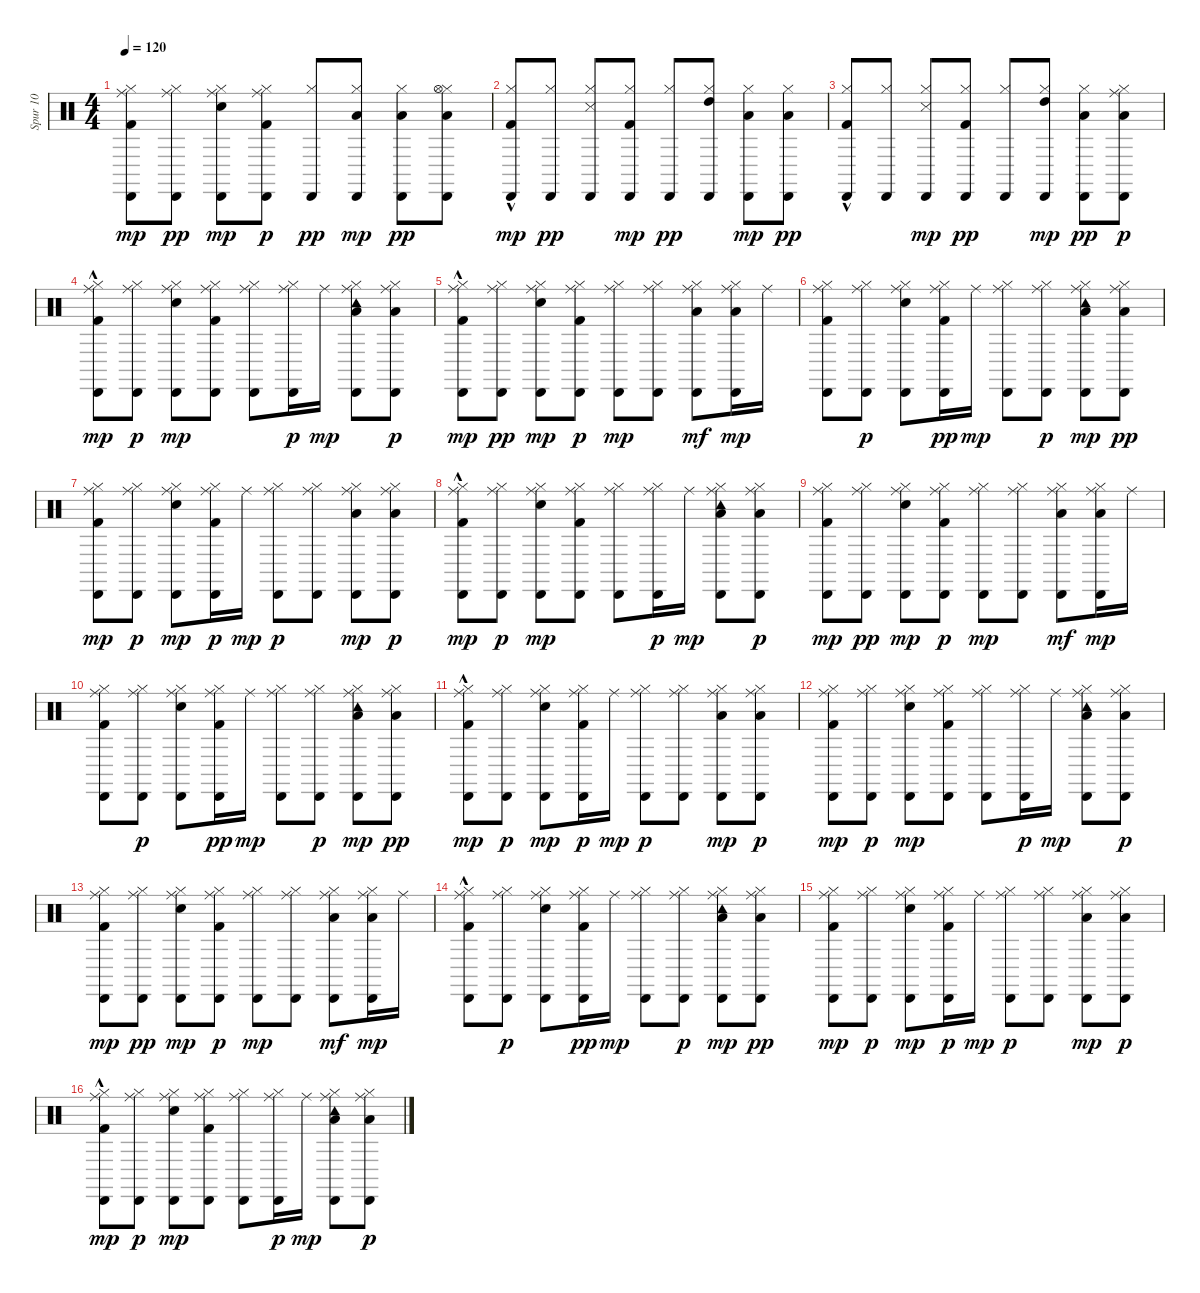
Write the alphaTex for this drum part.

\track ("Spur 10" "Spur 10") {instrument percussion}
\staff {score}
\articulation defaults
\ts (4 4)
\tempo 120
\clef neutral
\ks c
("Kick (hit) 2" "Hi-Hat (closed)" "Cabasa (hit)" "Ride (middle)").8{dy mp} ("Hi-Hat (closed)" "Cabasa (hit)" "Ride (middle)").8{dy pp} ("Snare (hit) 2" "Hi-Hat (closed)" "Cabasa (hit)" "Ride (middle)").8{dy mp} ("Kick (hit) 2" "Hi-Hat (closed)" "Cabasa (hit)" "Ride (middle)").8{dy p} ("Hi-Hat (closed)" "Cabasa (hit)").8{dy pp} ("Low Tom (hit)" "Hi-Hat (closed)" "Cabasa (hit)").8{dy mp} ("Low Floor Tom (hit)" "Hi-Hat (closed)" "Cabasa (hit)").8{dy pp} ("Low Floor Tom (hit)" "Hi-Hat (closed)" "Hi-Hat (open)" "Cabasa (hit)").8 |
("Kick (hit) 2"{hac} "Hi-Hat (closed)" "Cabasa (hit)").8{dy mp} ("Hi-Hat (closed)" "Cabasa (hit)").8{dy pp} ("Snare (side stick) 3" "Hi-Hat (closed)" "Cabasa (hit)").8 ("Kick (hit) 2" "Hi-Hat (closed)" "Cabasa (hit)").8{dy mp} ("Hi-Hat (closed)" "Cabasa (hit)").8{dy pp} ("High Tom (hit)" "Hi-Hat (closed)" "Cabasa (hit)").8 ("Low Tom (hit)" "Hi-Hat (closed)" "Cabasa (hit)").8{dy mp} ("Low Tom (hit)" "Hi-Hat (closed)" "Cabasa (hit)").8{dy pp} |
("Kick (hit) 2"{hac} "Hi-Hat (closed)" "Cabasa (hit)").8 ("Hi-Hat (closed)" "Cabasa (hit)").8 ("Snare (side stick) 3" "Hi-Hat (closed)" "Cabasa (hit)").8{dy mp} ("Kick (hit) 2" "Hi-Hat (closed)" "Cabasa (hit)").8{dy pp} ("Hi-Hat (closed)" "Cabasa (hit)").8 ("High Tom (hit)" "Hi-Hat (closed)" "Cabasa (hit)").8{dy mp} ("Low Floor Tom (hit)" "Hi-Hat (closed)" "Cabasa (hit)").8{dy pp} ("Low Floor Tom (hit)" "Hi-Hat (closed)" "Cabasa (hit)" "Ride (middle)").8{dy p} |
("Kick (hit) 2"{hac} "Hi-Hat (closed)" "Cabasa (hit)" "Ride (middle)").8{dy mp} ("Hi-Hat (closed)" "Cabasa (hit)" "Ride (middle)").8{dy p} ("Snare (hit) 2" "Hi-Hat (closed)" "Cabasa (hit)" "Ride (middle)").8{dy mp} ("Kick (hit) 2" "Hi-Hat (closed)" "Cabasa (hit)" "Ride (middle)").8 ("Hi-Hat (closed)" "Cabasa (hit)" "Ride (middle)").8 ("Hi-Hat (closed)" "Cabasa (hit)" "Ride (middle)").16{dy p} "Ride (middle)".16{dy mp} ("Low Tom (hit)" "Hi-Hat (closed)" "Cabasa (hit)" "Tambourine (hit)" "Ride (middle)").8 ("Low Tom (hit)" "Hi-Hat (closed)" "Cabasa (hit)" "Ride (middle)").8{dy p} |
("Kick (hit) 2"{hac} "Hi-Hat (closed)" "Cabasa (hit)" "Ride (middle)").8{dy mp} ("Hi-Hat (closed)" "Cabasa (hit)" "Ride (middle)").8{dy pp} ("Snare (hit) 2" "Hi-Hat (closed)" "Cabasa (hit)" "Ride (middle)").8{dy mp} ("Kick (hit) 2" "Hi-Hat (closed)" "Cabasa (hit)" "Ride (middle)").8{dy p} ("Hi-Hat (closed)" "Cabasa (hit)" "Ride (middle)").8{dy mp} ("Hi-Hat (closed)" "Cabasa (hit)" "Ride (middle)").8 ("Low Floor Tom (hit)" "Hi-Hat (closed)" "Cabasa (hit)" "Ride (middle)").8{dy mf} ("Low Floor Tom (hit)" "Hi-Hat (closed)" "Cabasa (hit)" "Ride (middle)").16{dy mp} "Ride (middle)".16 |
("Kick (hit) 2" "Hi-Hat (closed)" "Cabasa (hit)" "Ride (middle)").8 ("Hi-Hat (closed)" "Cabasa (hit)" "Ride (middle)").8{dy p} ("Snare (hit) 2" "Hi-Hat (closed)" "Cabasa (hit)" "Ride (middle)").8 ("Kick (hit) 2" "Hi-Hat (closed)" "Cabasa (hit)" "Ride (middle)").16{dy pp} "Ride (middle)".16{dy mp} ("Hi-Hat (closed)" "Cabasa (hit)" "Ride (middle)").8 ("Hi-Hat (closed)" "Cabasa (hit)" "Ride (middle)").8{dy p} ("Low Tom (hit)" "Hi-Hat (closed)" "Cabasa (hit)" "Tambourine (hit)" "Ride (middle)").8{dy mp} ("Low Tom (hit)" "Hi-Hat (closed)" "Cabasa (hit)" "Ride (middle)").8{dy pp} |
("Kick (hit) 2" "Hi-Hat (closed)" "Cabasa (hit)" "Ride (middle)").8{dy mp} ("Hi-Hat (closed)" "Cabasa (hit)" "Ride (middle)").8{dy p} ("Snare (hit) 2" "Hi-Hat (closed)" "Cabasa (hit)" "Ride (middle)").8{dy mp} ("Kick (hit) 2" "Hi-Hat (closed)" "Cabasa (hit)" "Ride (middle)").16{dy p} "Ride (middle)".16{dy mp} ("Hi-Hat (closed)" "Cabasa (hit)" "Ride (middle)").8{dy p} ("Hi-Hat (closed)" "Cabasa (hit)" "Ride (middle)").8 ("Low Floor Tom (hit)" "Hi-Hat (closed)" "Cabasa (hit)" "Ride (middle)").8{dy mp} ("Low Floor Tom (hit)" "Hi-Hat (closed)" "Cabasa (hit)" "Ride (middle)").8{dy p} |
("Kick (hit) 2"{hac} "Hi-Hat (closed)" "Cabasa (hit)" "Ride (middle)").8{dy mp} ("Hi-Hat (closed)" "Cabasa (hit)" "Ride (middle)").8{dy p} ("Snare (hit) 2" "Hi-Hat (closed)" "Cabasa (hit)" "Ride (middle)").8{dy mp} ("Kick (hit) 2" "Hi-Hat (closed)" "Cabasa (hit)" "Ride (middle)").8 ("Hi-Hat (closed)" "Cabasa (hit)" "Ride (middle)").8 ("Hi-Hat (closed)" "Cabasa (hit)" "Ride (middle)").16{dy p} "Ride (middle)".16{dy mp} ("Low Tom (hit)" "Hi-Hat (closed)" "Cabasa (hit)" "Tambourine (hit)" "Ride (middle)").8 ("Low Tom (hit)" "Hi-Hat (closed)" "Cabasa (hit)" "Ride (middle)").8{dy p} |
("Kick (hit) 2" "Hi-Hat (closed)" "Cabasa (hit)" "Ride (middle)").8{dy mp} ("Hi-Hat (closed)" "Cabasa (hit)" "Ride (middle)").8{dy pp} ("Snare (hit) 2" "Hi-Hat (closed)" "Cabasa (hit)" "Ride (middle)").8{dy mp} ("Kick (hit) 2" "Hi-Hat (closed)" "Cabasa (hit)" "Ride (middle)").8{dy p} ("Hi-Hat (closed)" "Cabasa (hit)" "Ride (middle)").8{dy mp} ("Hi-Hat (closed)" "Cabasa (hit)" "Ride (middle)").8 ("Low Floor Tom (hit)" "Hi-Hat (closed)" "Cabasa (hit)" "Ride (middle)").8{dy mf} ("Low Floor Tom (hit)" "Hi-Hat (closed)" "Cabasa (hit)" "Ride (middle)").16{dy mp} "Ride (middle)".16 |
("Kick (hit) 2" "Hi-Hat (closed)" "Cabasa (hit)" "Ride (middle)").8 ("Hi-Hat (closed)" "Cabasa (hit)" "Ride (middle)").8{dy p} ("Snare (hit) 2" "Hi-Hat (closed)" "Cabasa (hit)" "Ride (middle)").8 ("Kick (hit) 2" "Hi-Hat (closed)" "Cabasa (hit)" "Ride (middle)").16{dy pp} "Ride (middle)".16{dy mp} ("Hi-Hat (closed)" "Cabasa (hit)" "Ride (middle)").8 ("Hi-Hat (closed)" "Cabasa (hit)" "Ride (middle)").8{dy p} ("Low Tom (hit)" "Hi-Hat (closed)" "Cabasa (hit)" "Tambourine (hit)" "Ride (middle)").8{dy mp} ("Low Tom (hit)" "Hi-Hat (closed)" "Cabasa (hit)" "Ride (middle)").8{dy pp} |
("Kick (hit) 2"{hac} "Hi-Hat (closed)" "Cabasa (hit)" "Ride (middle)").8{dy mp} ("Hi-Hat (closed)" "Cabasa (hit)" "Ride (middle)").8{dy p} ("Snare (hit) 2" "Hi-Hat (closed)" "Cabasa (hit)" "Ride (middle)").8{dy mp} ("Kick (hit) 2" "Hi-Hat (closed)" "Cabasa (hit)" "Ride (middle)").16{dy p} "Ride (middle)".16{dy mp} ("Hi-Hat (closed)" "Cabasa (hit)" "Ride (middle)").8{dy p} ("Hi-Hat (closed)" "Cabasa (hit)" "Ride (middle)").8 ("Low Floor Tom (hit)" "Hi-Hat (closed)" "Cabasa (hit)" "Ride (middle)").8{dy mp} ("Low Floor Tom (hit)" "Hi-Hat (closed)" "Cabasa (hit)" "Ride (middle)").8{dy p} |
("Kick (hit) 2" "Hi-Hat (closed)" "Cabasa (hit)" "Ride (middle)").8{dy mp} ("Hi-Hat (closed)" "Cabasa (hit)" "Ride (middle)").8{dy p} ("Snare (hit) 2" "Hi-Hat (closed)" "Cabasa (hit)" "Ride (middle)").8{dy mp} ("Kick (hit) 2" "Hi-Hat (closed)" "Cabasa (hit)" "Ride (middle)").8 ("Hi-Hat (closed)" "Cabasa (hit)" "Ride (middle)").8 ("Hi-Hat (closed)" "Cabasa (hit)" "Ride (middle)").16{dy p} "Ride (middle)".16{dy mp} ("Low Tom (hit)" "Hi-Hat (closed)" "Cabasa (hit)" "Tambourine (hit)" "Ride (middle)").8 ("Low Tom (hit)" "Hi-Hat (closed)" "Cabasa (hit)" "Ride (middle)").8{dy p} |
("Kick (hit) 2" "Hi-Hat (closed)" "Cabasa (hit)" "Ride (middle)").8{dy mp} ("Hi-Hat (closed)" "Cabasa (hit)" "Ride (middle)").8{dy pp} ("Snare (hit) 2" "Hi-Hat (closed)" "Cabasa (hit)" "Ride (middle)").8{dy mp} ("Kick (hit) 2" "Hi-Hat (closed)" "Cabasa (hit)" "Ride (middle)").8{dy p} ("Hi-Hat (closed)" "Cabasa (hit)" "Ride (middle)").8{dy mp} ("Hi-Hat (closed)" "Cabasa (hit)" "Ride (middle)").8 ("Low Floor Tom (hit)" "Hi-Hat (closed)" "Cabasa (hit)" "Ride (middle)").8{dy mf} ("Low Floor Tom (hit)" "Hi-Hat (closed)" "Cabasa (hit)" "Ride (middle)").16{dy mp} "Ride (middle)".16 |
("Kick (hit) 2"{hac} "Hi-Hat (closed)" "Cabasa (hit)" "Ride (middle)").8 ("Hi-Hat (closed)" "Cabasa (hit)" "Ride (middle)").8{dy p} ("Snare (hit) 2" "Hi-Hat (closed)" "Cabasa (hit)" "Ride (middle)").8 ("Kick (hit) 2" "Hi-Hat (closed)" "Cabasa (hit)" "Ride (middle)").16{dy pp} "Ride (middle)".16{dy mp} ("Hi-Hat (closed)" "Cabasa (hit)" "Ride (middle)").8 ("Hi-Hat (closed)" "Cabasa (hit)" "Ride (middle)").8{dy p} ("Low Tom (hit)" "Hi-Hat (closed)" "Cabasa (hit)" "Tambourine (hit)" "Ride (middle)").8{dy mp} ("Low Tom (hit)" "Hi-Hat (closed)" "Cabasa (hit)" "Ride (middle)").8{dy pp} |
("Kick (hit) 2" "Hi-Hat (closed)" "Cabasa (hit)" "Ride (middle)").8{dy mp} ("Hi-Hat (closed)" "Cabasa (hit)" "Ride (middle)").8{dy p} ("Snare (hit) 2" "Hi-Hat (closed)" "Cabasa (hit)" "Ride (middle)").8{dy mp} ("Kick (hit) 2" "Hi-Hat (closed)" "Cabasa (hit)" "Ride (middle)").16{dy p} "Ride (middle)".16{dy mp} ("Hi-Hat (closed)" "Cabasa (hit)" "Ride (middle)").8{dy p} ("Hi-Hat (closed)" "Cabasa (hit)" "Ride (middle)").8 ("Low Floor Tom (hit)" "Hi-Hat (closed)" "Cabasa (hit)" "Ride (middle)").8{dy mp} ("Low Floor Tom (hit)" "Hi-Hat (closed)" "Cabasa (hit)" "Ride (middle)").8{dy p} |
("Kick (hit) 2"{hac} "Hi-Hat (closed)" "Cabasa (hit)" "Ride (middle)").8{dy mp} ("Hi-Hat (closed)" "Cabasa (hit)" "Ride (middle)").8{dy p} ("Snare (hit) 2" "Hi-Hat (closed)" "Cabasa (hit)" "Ride (middle)").8{dy mp} ("Kick (hit) 2" "Hi-Hat (closed)" "Cabasa (hit)" "Ride (middle)").8 ("Hi-Hat (closed)" "Cabasa (hit)" "Ride (middle)").8 ("Hi-Hat (closed)" "Cabasa (hit)" "Ride (middle)").16{dy p} "Ride (middle)".16{dy mp} ("Low Tom (hit)" "Hi-Hat (closed)" "Cabasa (hit)" "Tambourine (hit)" "Ride (middle)").8 ("Low Tom (hit)" "Hi-Hat (closed)" "Cabasa (hit)" "Ride (middle)").8{dy p}
